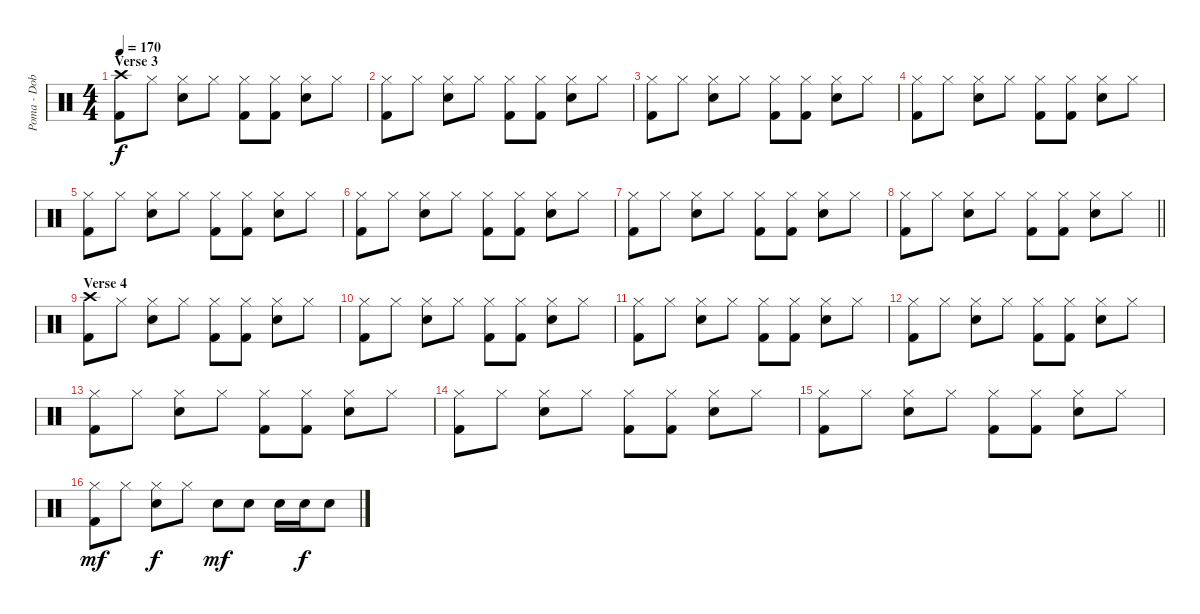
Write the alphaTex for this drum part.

\track ("Poma - Dob" "Poma - Dob") {instrument percussion}
\staff {score}
\articulation defaults
\ts (4 4)
\section ("" "Verse 3")
\tempo 170
\clef neutral
\ks c
("Crash high (hit)" "Kick (hit) 2").8{dy f} "Hi-Hat (closed)".8 ("Hi-Hat (closed)" "Electric Snare (hit)").8 "Hi-Hat (closed)".8 ("Hi-Hat (closed)" "Kick (hit) 2").8 ("Hi-Hat (closed)" "Kick (hit) 2").8 ("Hi-Hat (closed)" "Electric Snare (hit)").8 "Hi-Hat (closed)".8 |
("Hi-Hat (closed)" "Kick (hit) 2").8 "Hi-Hat (closed)".8 ("Hi-Hat (closed)" "Electric Snare (hit)").8 "Hi-Hat (closed)".8 ("Hi-Hat (closed)" "Kick (hit) 2").8 ("Hi-Hat (closed)" "Kick (hit) 2").8 ("Hi-Hat (closed)" "Electric Snare (hit)").8 "Hi-Hat (closed)".8 |
("Hi-Hat (closed)" "Kick (hit) 2").8 "Hi-Hat (closed)".8 ("Hi-Hat (closed)" "Electric Snare (hit)").8 "Hi-Hat (closed)".8 ("Hi-Hat (closed)" "Kick (hit) 2").8 ("Hi-Hat (closed)" "Kick (hit) 2").8 ("Hi-Hat (closed)" "Electric Snare (hit)").8 "Hi-Hat (closed)".8 |
("Hi-Hat (closed)" "Kick (hit) 2").8 "Hi-Hat (closed)".8 ("Hi-Hat (closed)" "Electric Snare (hit)").8 "Hi-Hat (closed)".8 ("Hi-Hat (closed)" "Kick (hit) 2").8 ("Hi-Hat (closed)" "Kick (hit) 2").8 ("Hi-Hat (closed)" "Electric Snare (hit)").8 "Hi-Hat (closed)".8 |
("Hi-Hat (closed)" "Kick (hit) 2").8 "Hi-Hat (closed)".8 ("Hi-Hat (closed)" "Electric Snare (hit)").8 "Hi-Hat (closed)".8 ("Hi-Hat (closed)" "Kick (hit) 2").8 ("Hi-Hat (closed)" "Kick (hit) 2").8 ("Hi-Hat (closed)" "Electric Snare (hit)").8 "Hi-Hat (closed)".8 |
("Hi-Hat (closed)" "Kick (hit) 2").8 "Hi-Hat (closed)".8 ("Hi-Hat (closed)" "Electric Snare (hit)").8 "Hi-Hat (closed)".8 ("Hi-Hat (closed)" "Kick (hit) 2").8 ("Hi-Hat (closed)" "Kick (hit) 2").8 ("Hi-Hat (closed)" "Electric Snare (hit)").8 "Hi-Hat (closed)".8 |
("Hi-Hat (closed)" "Kick (hit) 2").8 "Hi-Hat (closed)".8 ("Hi-Hat (closed)" "Electric Snare (hit)").8 "Hi-Hat (closed)".8 ("Hi-Hat (closed)" "Kick (hit) 2").8 ("Hi-Hat (closed)" "Kick (hit) 2").8 ("Hi-Hat (closed)" "Electric Snare (hit)").8 "Hi-Hat (closed)".8 |
\barLineRight lightlight
("Hi-Hat (closed)" "Kick (hit) 2").8 "Hi-Hat (closed)".8 ("Hi-Hat (closed)" "Electric Snare (hit)").8 "Hi-Hat (closed)".8 ("Hi-Hat (closed)" "Kick (hit) 2").8 ("Hi-Hat (closed)" "Kick (hit) 2").8 ("Hi-Hat (closed)" "Electric Snare (hit)").8 "Hi-Hat (closed)".8 |
\section ("" "Verse 4")
("Crash high (hit)" "Kick (hit) 2").8 "Hi-Hat (closed)".8 ("Hi-Hat (closed)" "Electric Snare (hit)").8 "Hi-Hat (closed)".8 ("Hi-Hat (closed)" "Kick (hit) 2").8 ("Hi-Hat (closed)" "Kick (hit) 2").8 ("Hi-Hat (closed)" "Electric Snare (hit)").8 "Hi-Hat (closed)".8 |
("Hi-Hat (closed)" "Kick (hit) 2").8 "Hi-Hat (closed)".8 ("Hi-Hat (closed)" "Electric Snare (hit)").8 "Hi-Hat (closed)".8 ("Hi-Hat (closed)" "Kick (hit) 2").8 ("Hi-Hat (closed)" "Kick (hit) 2").8 ("Hi-Hat (closed)" "Electric Snare (hit)").8 "Hi-Hat (closed)".8 |
("Hi-Hat (closed)" "Kick (hit) 2").8 "Hi-Hat (closed)".8 ("Hi-Hat (closed)" "Electric Snare (hit)").8 "Hi-Hat (closed)".8 ("Hi-Hat (closed)" "Kick (hit) 2").8 ("Hi-Hat (closed)" "Kick (hit) 2").8 ("Hi-Hat (closed)" "Electric Snare (hit)").8 "Hi-Hat (closed)".8 |
("Hi-Hat (closed)" "Kick (hit) 2").8 "Hi-Hat (closed)".8 ("Hi-Hat (closed)" "Electric Snare (hit)").8 "Hi-Hat (closed)".8 ("Hi-Hat (closed)" "Kick (hit) 2").8 ("Hi-Hat (closed)" "Kick (hit) 2").8 ("Hi-Hat (closed)" "Electric Snare (hit)").8 "Hi-Hat (closed)".8 |
("Hi-Hat (closed)" "Kick (hit) 2").8 "Hi-Hat (closed)".8 ("Hi-Hat (closed)" "Electric Snare (hit)").8 "Hi-Hat (closed)".8 ("Hi-Hat (closed)" "Kick (hit) 2").8 ("Hi-Hat (closed)" "Kick (hit) 2").8 ("Hi-Hat (closed)" "Electric Snare (hit)").8 "Hi-Hat (closed)".8 |
("Hi-Hat (closed)" "Kick (hit) 2").8 "Hi-Hat (closed)".8 ("Hi-Hat (closed)" "Electric Snare (hit)").8 "Hi-Hat (closed)".8 ("Hi-Hat (closed)" "Kick (hit) 2").8 ("Hi-Hat (closed)" "Kick (hit) 2").8 ("Hi-Hat (closed)" "Electric Snare (hit)").8 "Hi-Hat (closed)".8 |
("Hi-Hat (closed)" "Kick (hit) 2").8 "Hi-Hat (closed)".8 ("Hi-Hat (closed)" "Electric Snare (hit)").8 "Hi-Hat (closed)".8 ("Hi-Hat (closed)" "Kick (hit) 2").8 ("Hi-Hat (closed)" "Kick (hit) 2").8 ("Hi-Hat (closed)" "Electric Snare (hit)").8 "Hi-Hat (closed)".8 |
("Hi-Hat (closed)" "Kick (hit) 2").8{dy mf} "Hi-Hat (closed)".8 ("Hi-Hat (closed)" "Electric Snare (hit)").8{dy f} "Hi-Hat (closed)".8 "Electric Snare (hit)".8{dy mf} "Electric Snare (hit)".8 "Electric Snare (hit)".16 "Electric Snare (hit)".16{dy f} "Electric Snare (hit)".8
